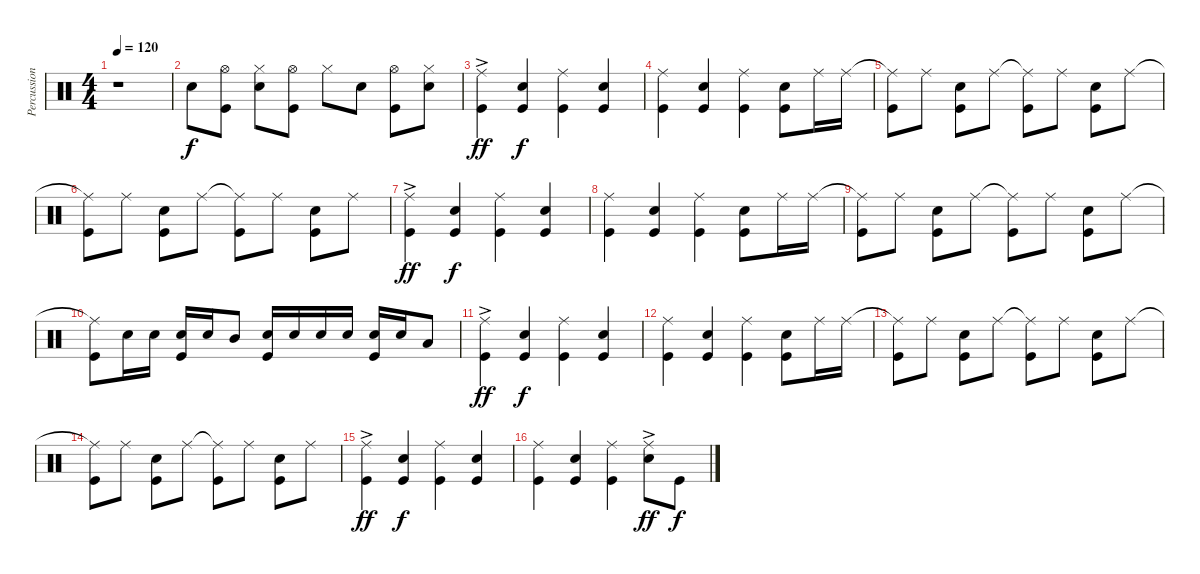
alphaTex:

\track ("Percussion" "Percussion") {instrument percussion}
\staff {score}
\articulation defaults
\ts (4 4)
\tempo 120
\clef neutral
\ks c
r.1{dy ff} |
"Snare (hit) 2".8{dy f} ("Hi-Hat (open)" "Kick (hit)").8 ("Hi-Hat (closed)" "Snare (hit) 2").8 ("Hi-Hat (open)" "Kick (hit)").8 "Hi-Hat (closed)".8 "Snare (hit) 2".8 ("Hi-Hat (open)" "Kick (hit)").8 ("Hi-Hat (closed)" "Snare (hit) 2").8 |
("Ride (middle)"{ac} "Kick (hit)").4{dy ff} ("Snare (hit) 2" "Kick (hit)").4{dy f} ("Ride (middle)" "Kick (hit)").4 ("Snare (hit) 2" "Kick (hit)").4 |
("Ride (middle)" "Kick (hit)").4 ("Snare (hit) 2" "Kick (hit)").4 ("Ride (middle)" "Kick (hit)").4 ("Snare (hit) 2" "Kick (hit)").8 "Ride (middle)".16 "Ride (middle)".16 |
("Ride (middle)"{t} "Kick (hit)").8 "Ride (middle)".8 ("Snare (hit) 2" "Kick (hit)").8 "Ride (middle)".8 ("Ride (middle)"{t} "Kick (hit)").8 "Ride (middle)".8 ("Snare (hit) 2" "Kick (hit)").8 "Ride (middle)".8 |
("Ride (middle)"{t} "Kick (hit)").8 "Ride (middle)".8 ("Snare (hit) 2" "Kick (hit)").8 "Ride (middle)".8 ("Ride (middle)"{t} "Kick (hit)").8 "Ride (middle)".8 ("Snare (hit) 2" "Kick (hit)").8 "Ride (middle)".8 |
("Ride (middle)"{ac} "Kick (hit)").4{dy ff} ("Snare (hit) 2" "Kick (hit)").4{dy f} ("Ride (middle)" "Kick (hit)").4 ("Snare (hit) 2" "Kick (hit)").4 |
("Ride (middle)" "Kick (hit)").4 ("Snare (hit) 2" "Kick (hit)").4 ("Ride (middle)" "Kick (hit)").4 ("Snare (hit) 2" "Kick (hit)").8 "Ride (middle)".16 "Ride (middle)".16 |
("Ride (middle)"{t} "Kick (hit)").8 "Ride (middle)".8 ("Snare (hit) 2" "Kick (hit)").8 "Ride (middle)".8 ("Ride (middle)"{t} "Kick (hit)").8 "Ride (middle)".8 ("Snare (hit) 2" "Kick (hit)").8 "Ride (middle)".8 |
("Ride (middle)"{t} "Kick (hit)").8 "Snare (hit) 2".16 "Snare (hit) 2".16 ("Snare (hit) 2" "Kick (hit)").16 "Snare (hit) 2".16 "Mid Tom (hit)".8 ("Snare (hit) 2" "Kick (hit)").16 "Snare (hit) 2".16 "Snare (hit) 2".16 "Snare (hit) 2".16 ("Snare (hit) 2" "Kick (hit)").16 "Snare (hit) 2".16 "Low Tom (hit)".8 |
("Ride (middle)"{ac} "Kick (hit)").4{dy ff} ("Snare (hit) 2" "Kick (hit)").4{dy f} ("Ride (middle)" "Kick (hit)").4 ("Snare (hit) 2" "Kick (hit)").4 |
("Ride (middle)" "Kick (hit)").4 ("Snare (hit) 2" "Kick (hit)").4 ("Ride (middle)" "Kick (hit)").4 ("Snare (hit) 2" "Kick (hit)").8 "Ride (middle)".16 "Ride (middle)".16 |
("Ride (middle)"{t} "Kick (hit)").8 "Ride (middle)".8 ("Snare (hit) 2" "Kick (hit)").8 "Ride (middle)".8 ("Ride (middle)"{t} "Kick (hit)").8 "Ride (middle)".8 ("Snare (hit) 2" "Kick (hit)").8 "Ride (middle)".8 |
("Ride (middle)"{t} "Kick (hit)").8 "Ride (middle)".8 ("Snare (hit) 2" "Kick (hit)").8 "Ride (middle)".8 ("Ride (middle)"{t} "Kick (hit)").8 "Ride (middle)".8 ("Snare (hit) 2" "Kick (hit)").8 "Ride (middle)".8 |
("Ride (middle)"{ac} "Kick (hit)").4{dy ff} ("Snare (hit) 2" "Kick (hit)").4{dy f} ("Ride (middle)" "Kick (hit)").4 ("Snare (hit) 2" "Kick (hit)").4 |
("Ride (middle)" "Kick (hit)").4 ("Snare (hit) 2" "Kick (hit)").4 ("Ride (middle)" "Kick (hit)").4 ("Ride (middle)"{ac} "Snare (hit) 2").8{dy ff} "Kick (hit)".8{dy f}
